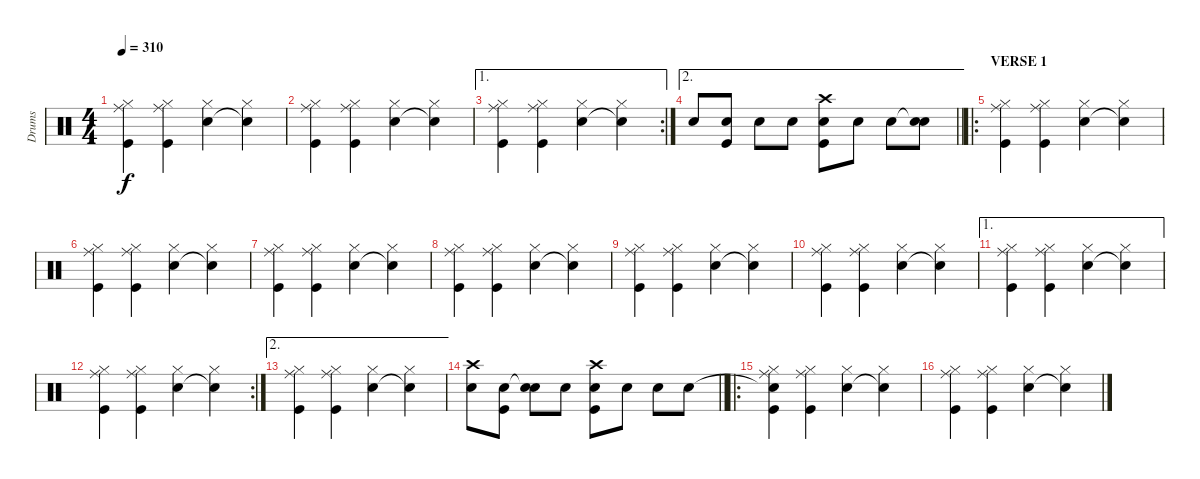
\track ("Drums" "Drums") {instrument percussion}
\staff {score}
\articulation defaults
\ts (4 4)
\tempo 310
\clef neutral
\ks c
("Ride (middle)" "Hi-Hat (closed)" "Kick (hit)").4{dy f} ("Ride (middle)" "Hi-Hat (closed)" "Kick (hit)").4 ("Snare (hit) 2" "Hi-Hat (closed)").4 ("Snare (hit)"{t} "Hi-Hat (closed)").4 |
("Ride (middle)" "Hi-Hat (closed)" "Kick (hit)").4 ("Ride (middle)" "Hi-Hat (closed)" "Kick (hit)").4 ("Snare (hit) 2" "Hi-Hat (closed)").4 ("Snare (hit)"{t} "Hi-Hat (closed)").4 |
\ae 1
\rc 2
("Ride (middle)" "Hi-Hat (closed)" "Kick (hit)").4 ("Ride (middle)" "Hi-Hat (closed)" "Kick (hit)").4 ("Snare (hit) 2" "Hi-Hat (closed)").4 ("Snare (hit)"{t} "Hi-Hat (closed)").4 |
\ae 2
\barLineRight lightlight "Snare (hit) 2".8
("Snare (hit) 2" "Kick (hit)").8 "Snare (hit) 2".8 "Snare (hit) 2".8 ("Crash high (hit)" "Snare (hit) 2" "Kick (hit)").8 "Snare (hit) 2".8 "Snare (hit) 2".8 ("Snare (hit)"{t} "Snare (hit) 2").8 |
\ro
\section ("" "VERSE 1")
("Ride (middle)" "Hi-Hat (closed)" "Kick (hit)").4 ("Ride (middle)" "Hi-Hat (closed)" "Kick (hit)").4 ("Snare (hit) 2" "Hi-Hat (closed)").4 ("Snare (hit)"{t} "Hi-Hat (closed)").4 |
("Ride (middle)" "Hi-Hat (closed)" "Kick (hit)").4 ("Ride (middle)" "Hi-Hat (closed)" "Kick (hit)").4 ("Snare (hit) 2" "Hi-Hat (closed)").4 ("Snare (hit)"{t} "Hi-Hat (closed)").4 |
("Ride (middle)" "Hi-Hat (closed)" "Kick (hit)").4 ("Ride (middle)" "Hi-Hat (closed)" "Kick (hit)").4 ("Snare (hit) 2" "Hi-Hat (closed)").4 ("Snare (hit)"{t} "Hi-Hat (closed)").4 |
("Ride (middle)" "Hi-Hat (closed)" "Kick (hit)").4 ("Ride (middle)" "Hi-Hat (closed)" "Kick (hit)").4 ("Snare (hit) 2" "Hi-Hat (closed)").4 ("Snare (hit)"{t} "Hi-Hat (closed)").4 |
("Ride (middle)" "Hi-Hat (closed)" "Kick (hit)").4 ("Ride (middle)" "Hi-Hat (closed)" "Kick (hit)").4 ("Snare (hit) 2" "Hi-Hat (closed)").4 ("Snare (hit)"{t} "Hi-Hat (closed)").4 |
("Ride (middle)" "Hi-Hat (closed)" "Kick (hit)").4 ("Ride (middle)" "Hi-Hat (closed)" "Kick (hit)").4 ("Snare (hit) 2" "Hi-Hat (closed)").4 ("Snare (hit)"{t} "Hi-Hat (closed)").4 |
\ae 1
("Ride (middle)" "Hi-Hat (closed)" "Kick (hit)").4 ("Ride (middle)" "Hi-Hat (closed)" "Kick (hit)").4 ("Snare (hit) 2" "Hi-Hat (closed)").4 ("Snare (hit)"{t} "Hi-Hat (closed)").4 |
\rc 2
("Ride (middle)" "Hi-Hat (closed)" "Kick (hit)").4 ("Ride (middle)" "Hi-Hat (closed)" "Kick (hit)").4 ("Snare (hit) 2" "Hi-Hat (closed)").4 ("Snare (hit)"{t} "Hi-Hat (closed)").4 |
\ae 2
("Ride (middle)" "Hi-Hat (closed)" "Kick (hit)").4 ("Ride (middle)" "Hi-Hat (closed)" "Kick (hit)").4 ("Snare (hit) 2" "Hi-Hat (closed)").4 ("Snare (hit)"{t} "Hi-Hat (closed)").4 |
\barLineRight lightlight
("Crash high (hit)" "Snare (hit) 2").8 ("Snare (hit) 2" "Kick (hit)").8 ("Snare (hit)"{t} "Snare (hit) 2").8 "Snare (hit) 2".8 ("Crash high (hit)" "Snare (hit) 2" "Kick (hit)").8 "Snare (hit) 2".8 "Snare (hit) 2".8 "Snare (hit) 2".8 |
\ro
("Snare (hit)"{t} "Ride (middle)" "Hi-Hat (closed)" "Kick (hit)").4 ("Ride (middle)" "Hi-Hat (closed)" "Kick (hit)").4 ("Snare (hit) 2" "Hi-Hat (closed)").4 ("Snare (hit)"{t} "Hi-Hat (closed)").4 |
("Ride (middle)" "Hi-Hat (closed)" "Kick (hit)").4 ("Ride (middle)" "Hi-Hat (closed)" "Kick (hit)").4 ("Snare (hit) 2" "Hi-Hat (closed)").4 ("Snare (hit)"{t} "Hi-Hat (closed)").4
